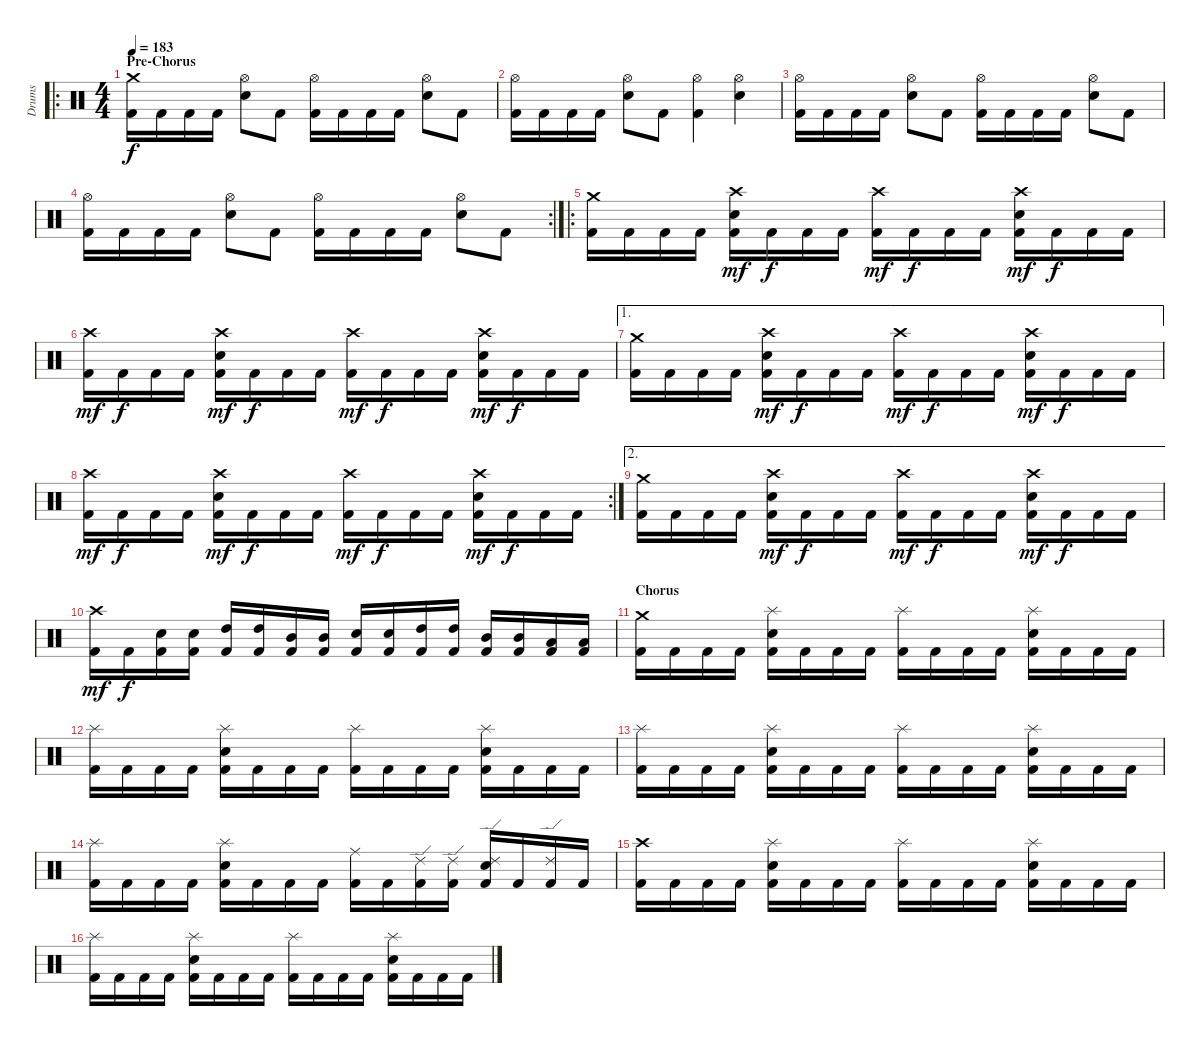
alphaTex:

\track ("Drums" "Drums") {instrument percussion}
\staff {score}
\articulation defaults
\ro
\ts (4 4)
\section ("" "Pre-Chorus")
\tempo 183
\clef neutral
\ks c
("Kick (hit) 2" "Crash medium (hit)").16{dy f} "Kick (hit) 2".16 "Kick (hit) 2".16 "Kick (hit) 2".16 ("Electric Snare (hit)" "Hi-Hat (open)").8 "Kick (hit) 2".8 ("Kick (hit) 2" "Hi-Hat (open)").16 "Kick (hit) 2".16 "Kick (hit) 2".16 "Kick (hit) 2".16 ("Electric Snare (hit)" "Hi-Hat (open)").8 "Kick (hit) 2".8 |
("Kick (hit) 2" "Hi-Hat (open)").16 "Kick (hit) 2".16 "Kick (hit) 2".16 "Kick (hit) 2".16 ("Electric Snare (hit)" "Hi-Hat (open)").8 "Kick (hit) 2".8 ("Kick (hit) 2" "Hi-Hat (open)").4 ("Electric Snare (hit)" "Hi-Hat (open)").4 |
("Kick (hit) 2" "Hi-Hat (open)").16 "Kick (hit) 2".16 "Kick (hit) 2".16 "Kick (hit) 2".16 ("Electric Snare (hit)" "Hi-Hat (open)").8 "Kick (hit) 2".8 ("Kick (hit) 2" "Hi-Hat (open)").16 "Kick (hit) 2".16 "Kick (hit) 2".16 "Kick (hit) 2".16 ("Electric Snare (hit)" "Hi-Hat (open)").8 "Kick (hit) 2".8 |
\rc 2
("Kick (hit) 2" "Hi-Hat (open)").16 "Kick (hit) 2".16 "Kick (hit) 2".16 "Kick (hit) 2".16 ("Electric Snare (hit)" "Hi-Hat (open)").8 "Kick (hit) 2".8 ("Kick (hit) 2" "Hi-Hat (open)").16 "Kick (hit) 2".16 "Kick (hit) 2".16 "Kick (hit) 2".16 ("Electric Snare (hit)" "Hi-Hat (open)").8 "Kick (hit) 2".8 |
\ro
("Kick (hit) 2" "Crash medium (hit)").16 "Kick (hit) 2".16 "Kick (hit) 2".16 "Kick (hit) 2".16 ("Kick (hit) 2" "Electric Snare (hit)" "Crash high (hit)").16{dy mf} "Kick (hit) 2".16{dy f} "Kick (hit) 2".16 "Kick (hit) 2".16 ("Kick (hit) 2" "Crash high (hit)").16{dy mf} "Kick (hit) 2".16{dy f} "Kick (hit) 2".16 "Kick (hit) 2".16 ("Kick (hit) 2" "Electric Snare (hit)" "Crash high (hit)").16{dy mf} "Kick (hit) 2".16{dy f} "Kick (hit) 2".16 "Kick (hit) 2".16 |
("Kick (hit) 2" "Crash high (hit)").16{dy mf} "Kick (hit) 2".16{dy f} "Kick (hit) 2".16 "Kick (hit) 2".16 ("Kick (hit) 2" "Electric Snare (hit)" "Crash high (hit)").16{dy mf} "Kick (hit) 2".16{dy f} "Kick (hit) 2".16 "Kick (hit) 2".16 ("Kick (hit) 2" "Crash high (hit)").16{dy mf} "Kick (hit) 2".16{dy f} "Kick (hit) 2".16 "Kick (hit) 2".16 ("Kick (hit) 2" "Electric Snare (hit)" "Crash high (hit)").16{dy mf} "Kick (hit) 2".16{dy f} "Kick (hit) 2".16 "Kick (hit) 2".16 |
\ae 1
("Kick (hit) 2" "Crash medium (hit)").16 "Kick (hit) 2".16 "Kick (hit) 2".16 "Kick (hit) 2".16 ("Kick (hit) 2" "Electric Snare (hit)" "Crash high (hit)").16{dy mf} "Kick (hit) 2".16{dy f} "Kick (hit) 2".16 "Kick (hit) 2".16 ("Kick (hit) 2" "Crash high (hit)").16{dy mf} "Kick (hit) 2".16{dy f} "Kick (hit) 2".16 "Kick (hit) 2".16 ("Kick (hit) 2" "Electric Snare (hit)" "Crash high (hit)").16{dy mf} "Kick (hit) 2".16{dy f} "Kick (hit) 2".16 "Kick (hit) 2".16 |
\rc 2
("Kick (hit) 2" "Crash high (hit)").16{dy mf} "Kick (hit) 2".16{dy f} "Kick (hit) 2".16 "Kick (hit) 2".16 ("Kick (hit) 2" "Electric Snare (hit)" "Crash high (hit)").16{dy mf} "Kick (hit) 2".16{dy f} "Kick (hit) 2".16 "Kick (hit) 2".16 ("Kick (hit) 2" "Crash high (hit)").16{dy mf} "Kick (hit) 2".16{dy f} "Kick (hit) 2".16 "Kick (hit) 2".16 ("Kick (hit) 2" "Electric Snare (hit)" "Crash high (hit)").16{dy mf} "Kick (hit) 2".16{dy f} "Kick (hit) 2".16 "Kick (hit) 2".16 |
\ae 2
("Kick (hit) 2" "Crash medium (hit)").16 "Kick (hit) 2".16 "Kick (hit) 2".16 "Kick (hit) 2".16 ("Kick (hit) 2" "Electric Snare (hit)" "Crash high (hit)").16{dy mf} "Kick (hit) 2".16{dy f} "Kick (hit) 2".16 "Kick (hit) 2".16 ("Kick (hit) 2" "Crash high (hit)").16{dy mf} "Kick (hit) 2".16{dy f} "Kick (hit) 2".16 "Kick (hit) 2".16 ("Kick (hit) 2" "Electric Snare (hit)" "Crash high (hit)").16{dy mf} "Kick (hit) 2".16{dy f} "Kick (hit) 2".16 "Kick (hit) 2".16 |
("Kick (hit) 2" "Crash high (hit)").16{dy mf} "Kick (hit) 2".16{dy f} ("Kick (hit) 2" "Electric Snare (hit)").16 ("Kick (hit) 2" "Electric Snare (hit)").16 ("Kick (hit) 2" "High Tom (hit)").16 ("Kick (hit) 2" "High Tom (hit)").16 ("Kick (hit) 2" "Mid Tom (hit)").16 ("Kick (hit) 2" "Mid Tom (hit)").16 ("Kick (hit) 2" "Electric Snare (hit)").16 ("Kick (hit) 2" "Electric Snare (hit)").16 ("Kick (hit) 2" "High Tom (hit)").16 ("Kick (hit) 2" "High Tom (hit)").16 ("Kick (hit) 2" "Mid Tom (hit)").16 ("Kick (hit) 2" "Mid Tom (hit)").16 ("Kick (hit) 2" "Low Tom (hit)").16 ("Kick (hit) 2" "Low Tom (hit)").16 |
\section ("" "Chorus")
("Kick (hit) 2" "Crash medium (hit)").16 "Kick (hit) 2".16 "Kick (hit) 2".16 "Kick (hit) 2".16 ("Kick (hit) 2" "Electric Snare (hit)" "Splash (hit)").16 "Kick (hit) 2".16 "Kick (hit) 2".16 "Kick (hit) 2".16 ("Kick (hit) 2" "Splash (hit)").16 "Kick (hit) 2".16 "Kick (hit) 2".16 "Kick (hit) 2".16 ("Kick (hit) 2" "Electric Snare (hit)" "Splash (hit)").16 "Kick (hit) 2".16 "Kick (hit) 2".16 "Kick (hit) 2".16 |
("Kick (hit) 2" "Splash (hit)").16 "Kick (hit) 2".16 "Kick (hit) 2".16 "Kick (hit) 2".16 ("Kick (hit) 2" "Electric Snare (hit)" "Splash (hit)").16 "Kick (hit) 2".16 "Kick (hit) 2".16 "Kick (hit) 2".16 ("Kick (hit) 2" "Splash (hit)").16 "Kick (hit) 2".16 "Kick (hit) 2".16 "Kick (hit) 2".16 ("Kick (hit) 2" "Electric Snare (hit)" "Splash (hit)").16 "Kick (hit) 2".16 "Kick (hit) 2".16 "Kick (hit) 2".16 |
("Kick (hit) 2" "Splash (hit)").16 "Kick (hit) 2".16 "Kick (hit) 2".16 "Kick (hit) 2".16 ("Kick (hit) 2" "Electric Snare (hit)" "Splash (hit)").16 "Kick (hit) 2".16 "Kick (hit) 2".16 "Kick (hit) 2".16 ("Kick (hit) 2" "Splash (hit)").16 "Kick (hit) 2".16 "Kick (hit) 2".16 "Kick (hit) 2".16 ("Kick (hit) 2" "Electric Snare (hit)" "Splash (hit)").16 "Kick (hit) 2".16 "Kick (hit) 2".16 "Kick (hit) 2".16 |
("Kick (hit) 2" "Splash (hit)").16 "Kick (hit) 2".16 "Kick (hit) 2".16 "Kick (hit) 2".16 ("Kick (hit) 2" "Electric Snare (hit)" "Splash (hit)").16 "Kick (hit) 2".16 "Kick (hit) 2".16 "Kick (hit) 2".16 ("Kick (hit) 2" "Ride (middle)").16 "Kick (hit) 2".16 ("Kick (hit) 2" "Ride (edge) 2").16 ("Kick (hit) 2" "Ride (edge) 2").16 ("Kick (hit) 2" "Electric Snare (hit)" "Ride (edge) 2").16 "Kick (hit) 2".16 ("Kick (hit) 2" "Ride (edge) 2").16 "Kick (hit) 2".16 |
("Kick (hit) 2" "Crash high (hit)").16 "Kick (hit) 2".16 "Kick (hit) 2".16 "Kick (hit) 2".16 ("Kick (hit) 2" "Electric Snare (hit)" "Splash (hit)").16 "Kick (hit) 2".16 "Kick (hit) 2".16 "Kick (hit) 2".16 ("Kick (hit) 2" "Splash (hit)").16 "Kick (hit) 2".16 "Kick (hit) 2".16 "Kick (hit) 2".16 ("Kick (hit) 2" "Electric Snare (hit)" "Splash (hit)").16 "Kick (hit) 2".16 "Kick (hit) 2".16 "Kick (hit) 2".16 |
("Kick (hit) 2" "Splash (hit)").16 "Kick (hit) 2".16 "Kick (hit) 2".16 "Kick (hit) 2".16 ("Kick (hit) 2" "Electric Snare (hit)" "Splash (hit)").16 "Kick (hit) 2".16 "Kick (hit) 2".16 "Kick (hit) 2".16 ("Kick (hit) 2" "Splash (hit)").16 "Kick (hit) 2".16 "Kick (hit) 2".16 "Kick (hit) 2".16 ("Kick (hit) 2" "Electric Snare (hit)" "Splash (hit)").16 "Kick (hit) 2".16 "Kick (hit) 2".16 "Kick (hit) 2".16
